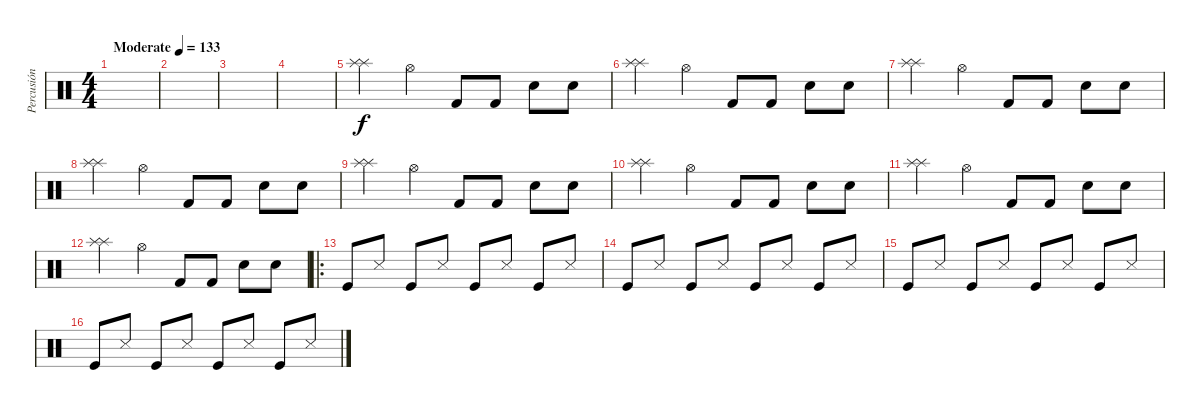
\track ("Percusión" "Percusión") {instrument percussion}
\staff {score}
\articulation defaults
\ts (4 4)
\tempo (133 "Moderate")
\clef neutral
\ks c
|
|
|
|
("Splash (hit)" "Splash (hit)").4 "Hi-Hat (open)".4 "Kick (hit) 2".8 "Kick (hit) 2".8 "Hand Clap (hit)".8 "Hand Clap (hit)".8 |
("Splash (hit)" "Splash (hit)").4 "Hi-Hat (open)".4 "Kick (hit) 2".8 "Kick (hit) 2".8 "Hand Clap (hit)".8 "Hand Clap (hit)".8 |
("Splash (hit)" "Splash (hit)").4 "Hi-Hat (open)".4 "Kick (hit) 2".8 "Kick (hit) 2".8 "Hand Clap (hit)".8 "Hand Clap (hit)".8 |
("Splash (hit)" "Splash (hit)").4 "Hi-Hat (open)".4 "Kick (hit) 2".8 "Kick (hit) 2".8 "Hand Clap (hit)".8 "Hand Clap (hit)".8 |
("Splash (hit)" "Splash (hit)").4 "Hi-Hat (open)".4 "Kick (hit) 2".8 "Kick (hit) 2".8 "Hand Clap (hit)".8 "Hand Clap (hit)".8 |
("Splash (hit)" "Splash (hit)").4 "Hi-Hat (open)".4 "Kick (hit) 2".8 "Kick (hit) 2".8 "Hand Clap (hit)".8 "Hand Clap (hit)".8 |
("Splash (hit)" "Splash (hit)").4 "Hi-Hat (open)".4 "Kick (hit) 2".8 "Kick (hit) 2".8 "Hand Clap (hit)".8 "Hand Clap (hit)".8 |
("Splash (hit)" "Splash (hit)").4 "Hi-Hat (open)".4 "Kick (hit) 2".8 "Kick (hit) 2".8 "Hand Clap (hit)".8 "Hand Clap (hit)".8 |
\ro "Kick (hit)".8 "Snare (side stick) 3".8 "Kick (hit)".8 "Snare (side stick) 3".8 "Kick (hit)".8 "Snare (side stick) 3".8 "Kick (hit)".8 "Snare (side stick) 3".8
|
"Kick (hit)".8 "Snare (side stick) 3".8 "Kick (hit)".8 "Snare (side stick) 3".8 "Kick (hit)".8 "Snare (side stick) 3".8 "Kick (hit)".8 "Snare (side stick) 3".8 |
"Kick (hit)".8 "Snare (side stick) 3".8 "Kick (hit)".8 "Snare (side stick) 3".8 "Kick (hit)".8 "Snare (side stick) 3".8 "Kick (hit)".8 "Snare (side stick) 3".8 |
"Kick (hit)".8 "Snare (side stick) 3".8 "Kick (hit)".8 "Snare (side stick) 3".8 "Kick (hit)".8 "Snare (side stick) 3".8 "Kick (hit)".8 "Snare (side stick) 3".8
